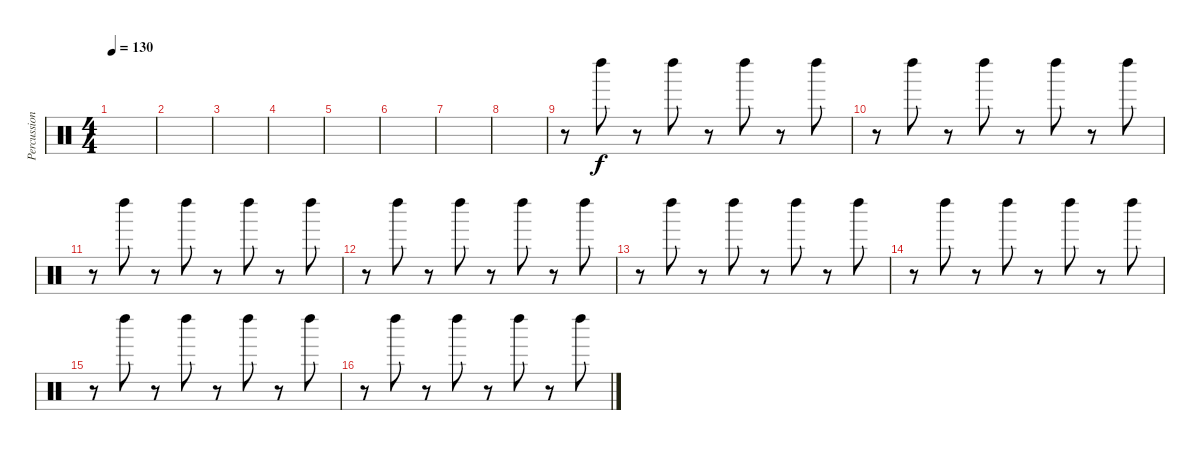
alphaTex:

\track ("Percussion" "Percussion") {instrument percussion}
\staff {score}
\articulation defaults
\ts (4 4)
\tempo 130
\clef neutral
\ks c
|
|
|
|
|
|
|
|
r.8{volume 7} "Left Maraca (hit)".8{dy f} r.8 "Left Maraca (hit)".8 r.8 "Left Maraca (hit)".8 r.8 "Left Maraca (hit)".8 |
r.8 "Left Maraca (hit)".8 r.8 "Left Maraca (hit)".8 r.8 "Left Maraca (hit)".8 r.8 "Left Maraca (hit)".8 |
r.8 "Left Maraca (hit)".8 r.8 "Left Maraca (hit)".8 r.8 "Left Maraca (hit)".8 r.8 "Left Maraca (hit)".8 |
r.8 "Left Maraca (hit)".8 r.8 "Left Maraca (hit)".8 r.8 "Left Maraca (hit)".8 r.8 "Left Maraca (hit)".8 |
r.8{volume 0} "Left Maraca (hit)".8 r.8 "Left Maraca (hit)".8 r.8 "Left Maraca (hit)".8 r.8 "Left Maraca (hit)".8 |
r.8 "Left Maraca (hit)".8 r.8 "Left Maraca (hit)".8 r.8 "Left Maraca (hit)".8 r.8 "Left Maraca (hit)".8 |
r.8 "Left Maraca (hit)".8 r.8 "Left Maraca (hit)".8 r.8 "Left Maraca (hit)".8 r.8 "Left Maraca (hit)".8 |
r.8 "Left Maraca (hit)".8 r.8 "Left Maraca (hit)".8 r.8 "Left Maraca (hit)".8 r.8 "Left Maraca (hit)".8
